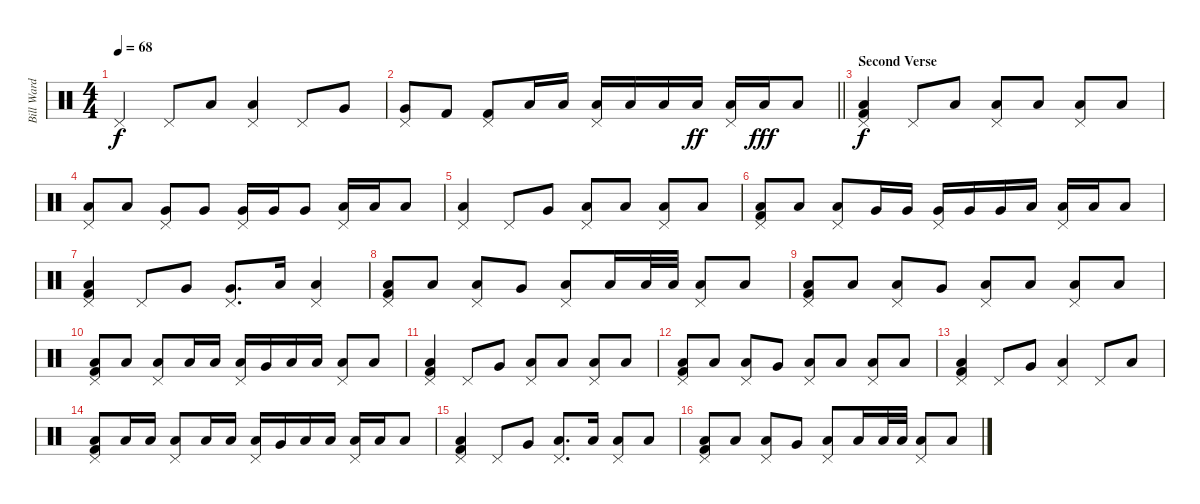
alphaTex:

\track ("Bill Ward" "Bill Ward") {instrument percussion}
\staff {score}
\articulation defaults
\ts (4 4)
\tempo 68
\clef neutral
\ks c "Pedal Hi-Hat (hit)".4{dy f} "Pedal Hi-Hat (hit)".8 "Low Floor Tom (hit)".8
("Pedal Hi-Hat (hit)" "Low Floor Tom (hit)").4 "Pedal Hi-Hat (hit)".8 "Very Low Tom (hit)".8 |
\barLineRight lightlight
("Pedal Hi-Hat (hit)" "Very Low Tom (hit)").8 "Kick (hit) 2".8 ("Pedal Hi-Hat (hit)" "Kick (hit) 2").8 "Low Floor Tom (hit)".16 "Low Floor Tom (hit)".16 ("Pedal Hi-Hat (hit)" "Low Floor Tom (hit)").16 "Low Floor Tom (hit)".16 "Low Floor Tom (hit)".16 "Low Floor Tom (hit)".16{dy ff} ("Pedal Hi-Hat (hit)" "Low Floor Tom (hit)").16 "Low Floor Tom (hit)".16{dy fff} "Low Floor Tom (hit)".8 |
\section ("" "Second Verse")
("Pedal Hi-Hat (hit)" "Low Floor Tom (hit)" "Kick (hit) 2").4{dy f} "Pedal Hi-Hat (hit)".8 "Low Floor Tom (hit)".8 ("Pedal Hi-Hat (hit)" "Low Floor Tom (hit)").8 "Low Floor Tom (hit)".8 ("Pedal Hi-Hat (hit)" "Low Floor Tom (hit)").8 "Low Floor Tom (hit)".8 |
("Pedal Hi-Hat (hit)" "Low Floor Tom (hit)").8 "Low Floor Tom (hit)".8 ("Pedal Hi-Hat (hit)" "Very Low Tom (hit)").8 "Very Low Tom (hit)".8 ("Pedal Hi-Hat (hit)" "Very Low Tom (hit)").16 "Very Low Tom (hit)".16 "Very Low Tom (hit)".8 ("Pedal Hi-Hat (hit)" "Low Floor Tom (hit)").16 "Low Floor Tom (hit)".16 "Low Floor Tom (hit)".8 |
("Pedal Hi-Hat (hit)" "Low Floor Tom (hit)").4 "Pedal Hi-Hat (hit)".8 "Very Low Tom (hit)".8 ("Pedal Hi-Hat (hit)" "Low Floor Tom (hit)").8 "Low Floor Tom (hit)".8 ("Pedal Hi-Hat (hit)" "Low Floor Tom (hit)").8 "Low Floor Tom (hit)".8 |
("Pedal Hi-Hat (hit)" "Low Floor Tom (hit)" "Kick (hit) 2").8 "Low Floor Tom (hit)".8 ("Pedal Hi-Hat (hit)" "Low Floor Tom (hit)").8 "Very Low Tom (hit)".16 "Very Low Tom (hit)".16 ("Pedal Hi-Hat (hit)" "Very Low Tom (hit)").16 "Very Low Tom (hit)".16 "Very Low Tom (hit)".16 "Low Floor Tom (hit)".16 ("Pedal Hi-Hat (hit)" "Low Floor Tom (hit)").16 "Low Floor Tom (hit)".16 "Low Floor Tom (hit)".8 |
("Pedal Hi-Hat (hit)" "Low Floor Tom (hit)" "Kick (hit) 2").4 "Pedal Hi-Hat (hit)".8 "Very Low Tom (hit)".8 ("Pedal Hi-Hat (hit)" "Very Low Tom (hit)").8{d} "Low Floor Tom (hit)".16 ("Pedal Hi-Hat (hit)" "Low Floor Tom (hit)").4 |
("Pedal Hi-Hat (hit)" "Low Floor Tom (hit)" "Kick (hit) 2").8 "Low Floor Tom (hit)".8 ("Pedal Hi-Hat (hit)" "Low Floor Tom (hit)").8 "Very Low Tom (hit)".8 ("Pedal Hi-Hat (hit)" "Low Floor Tom (hit)").8 "Low Floor Tom (hit)".16 "Low Floor Tom (hit)".32 "Low Floor Tom (hit)".32 ("Pedal Hi-Hat (hit)" "Low Floor Tom (hit)").8 "Low Floor Tom (hit)".8 |
("Pedal Hi-Hat (hit)" "Low Floor Tom (hit)" "Kick (hit) 2").8 "Low Floor Tom (hit)".8 ("Pedal Hi-Hat (hit)" "Low Floor Tom (hit)").8 "Very Low Tom (hit)".8 ("Pedal Hi-Hat (hit)" "Low Floor Tom (hit)").8 "Low Floor Tom (hit)".8 ("Pedal Hi-Hat (hit)" "Low Floor Tom (hit)").8 "Low Floor Tom (hit)".8 |
("Pedal Hi-Hat (hit)" "Low Floor Tom (hit)" "Kick (hit) 2").8 "Low Floor Tom (hit)".8 ("Pedal Hi-Hat (hit)" "Low Floor Tom (hit)").8 "Low Floor Tom (hit)".16 "Low Floor Tom (hit)".16 ("Pedal Hi-Hat (hit)" "Low Floor Tom (hit)").16 "Very Low Tom (hit)".16 "Low Floor Tom (hit)".16 "Low Floor Tom (hit)".16 ("Pedal Hi-Hat (hit)" "Low Floor Tom (hit)").8 "Low Floor Tom (hit)".8 |
("Pedal Hi-Hat (hit)" "Low Floor Tom (hit)" "Kick (hit) 2").4 "Pedal Hi-Hat (hit)".8 "Very Low Tom (hit)".8 ("Pedal Hi-Hat (hit)" "Low Floor Tom (hit)").8 "Low Floor Tom (hit)".8 ("Pedal Hi-Hat (hit)" "Low Floor Tom (hit)").8 "Low Floor Tom (hit)".8 |
("Pedal Hi-Hat (hit)" "Low Floor Tom (hit)" "Kick (hit) 2").8 "Low Floor Tom (hit)".8 ("Pedal Hi-Hat (hit)" "Low Floor Tom (hit)").8 "Very Low Tom (hit)".8 ("Pedal Hi-Hat (hit)" "Low Floor Tom (hit)").8 "Low Floor Tom (hit)".8 ("Pedal Hi-Hat (hit)" "Low Floor Tom (hit)").8 "Low Floor Tom (hit)".8 |
("Pedal Hi-Hat (hit)" "Low Floor Tom (hit)" "Kick (hit) 2").4 "Pedal Hi-Hat (hit)".8 "Very Low Tom (hit)".8 ("Pedal Hi-Hat (hit)" "Low Floor Tom (hit)").4 "Pedal Hi-Hat (hit)".8 "Low Floor Tom (hit)".8 |
("Pedal Hi-Hat (hit)" "Low Floor Tom (hit)" "Kick (hit) 2").8 "Low Floor Tom (hit)".16 "Low Floor Tom (hit)".16 ("Pedal Hi-Hat (hit)" "Low Floor Tom (hit)").8 "Low Floor Tom (hit)".16 "Low Floor Tom (hit)".16 ("Pedal Hi-Hat (hit)" "Low Floor Tom (hit)").16 "Very Low Tom (hit)".16 "Low Floor Tom (hit)".16 "Low Floor Tom (hit)".16 ("Pedal Hi-Hat (hit)" "Low Floor Tom (hit)").16 "Low Floor Tom (hit)".16 "Low Floor Tom (hit)".8 |
("Pedal Hi-Hat (hit)" "Low Floor Tom (hit)" "Kick (hit) 2").4 "Pedal Hi-Hat (hit)".8 "Very Low Tom (hit)".8 ("Pedal Hi-Hat (hit)" "Low Floor Tom (hit)").8{d} "Low Floor Tom (hit)".16 ("Pedal Hi-Hat (hit)" "Low Floor Tom (hit)").8 "Low Floor Tom (hit)".8 |
("Pedal Hi-Hat (hit)" "Low Floor Tom (hit)" "Kick (hit) 2").8 "Low Floor Tom (hit)".8 ("Pedal Hi-Hat (hit)" "Low Floor Tom (hit)").8 "Very Low Tom (hit)".8 ("Pedal Hi-Hat (hit)" "Low Floor Tom (hit)").8 "Low Floor Tom (hit)".16 "Low Floor Tom (hit)".32 "Low Floor Tom (hit)".32 ("Pedal Hi-Hat (hit)" "Low Floor Tom (hit)").8 "Low Floor Tom (hit)".8
